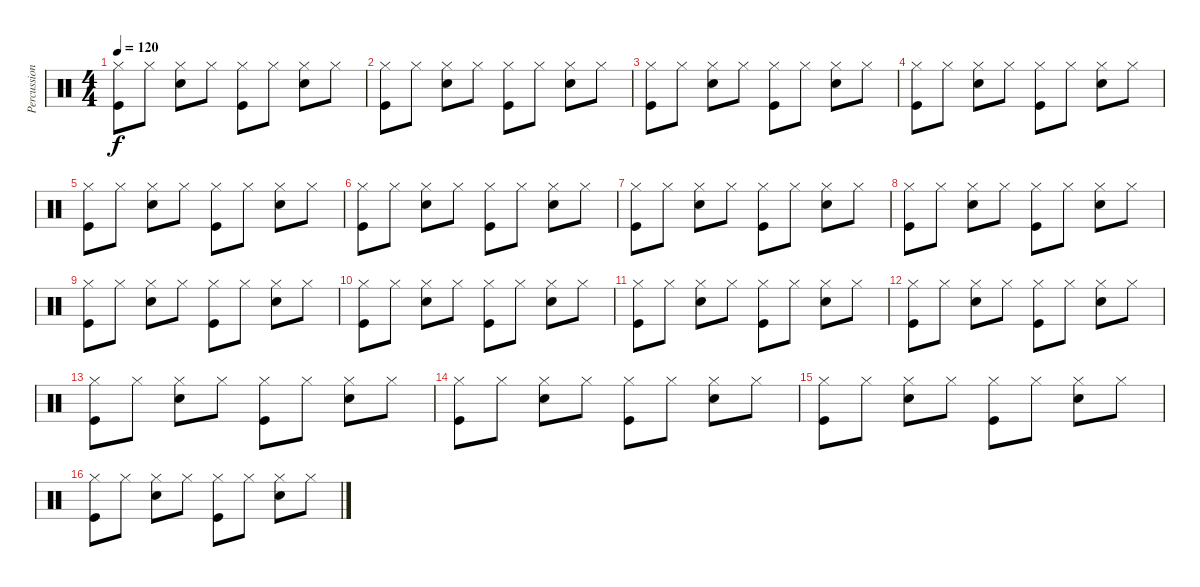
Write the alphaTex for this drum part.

\track ("Percussions" "Percussion") {instrument percussion}
\staff {score}
\articulation defaults
\ts (4 4)
\tempo 120
\clef neutral
\ks c
("Hi-Hat (closed)" "Kick (hit)").8{dy f} "Hi-Hat (closed)".8 ("Hi-Hat (closed)" "Electric Snare (hit)").8 "Hi-Hat (closed)".8 ("Hi-Hat (closed)" "Kick (hit)").8 "Hi-Hat (closed)".8 ("Hi-Hat (closed)" "Electric Snare (hit)").8 "Hi-Hat (closed)".8 |
("Hi-Hat (closed)" "Kick (hit)").8 "Hi-Hat (closed)".8 ("Hi-Hat (closed)" "Electric Snare (hit)").8 "Hi-Hat (closed)".8 ("Hi-Hat (closed)" "Kick (hit)").8 "Hi-Hat (closed)".8 ("Hi-Hat (closed)" "Electric Snare (hit)").8 "Hi-Hat (closed)".8 |
("Hi-Hat (closed)" "Kick (hit)").8 "Hi-Hat (closed)".8 ("Hi-Hat (closed)" "Electric Snare (hit)").8 "Hi-Hat (closed)".8 ("Hi-Hat (closed)" "Kick (hit)").8 "Hi-Hat (closed)".8 ("Hi-Hat (closed)" "Electric Snare (hit)").8 "Hi-Hat (closed)".8 |
("Hi-Hat (closed)" "Kick (hit)").8 "Hi-Hat (closed)".8 ("Hi-Hat (closed)" "Electric Snare (hit)").8 "Hi-Hat (closed)".8 ("Hi-Hat (closed)" "Kick (hit)").8 "Hi-Hat (closed)".8 ("Hi-Hat (closed)" "Electric Snare (hit)").8 "Hi-Hat (closed)".8 |
("Hi-Hat (closed)" "Kick (hit)").8 "Hi-Hat (closed)".8 ("Hi-Hat (closed)" "Electric Snare (hit)").8 "Hi-Hat (closed)".8 ("Hi-Hat (closed)" "Kick (hit)").8 "Hi-Hat (closed)".8 ("Hi-Hat (closed)" "Electric Snare (hit)").8 "Hi-Hat (closed)".8 |
("Hi-Hat (closed)" "Kick (hit)").8 "Hi-Hat (closed)".8 ("Hi-Hat (closed)" "Electric Snare (hit)").8 "Hi-Hat (closed)".8 ("Hi-Hat (closed)" "Kick (hit)").8 "Hi-Hat (closed)".8 ("Hi-Hat (closed)" "Electric Snare (hit)").8 "Hi-Hat (closed)".8 |
("Hi-Hat (closed)" "Kick (hit)").8 "Hi-Hat (closed)".8 ("Hi-Hat (closed)" "Electric Snare (hit)").8 "Hi-Hat (closed)".8 ("Hi-Hat (closed)" "Kick (hit)").8 "Hi-Hat (closed)".8 ("Hi-Hat (closed)" "Electric Snare (hit)").8 "Hi-Hat (closed)".8 |
("Hi-Hat (closed)" "Kick (hit)").8 "Hi-Hat (closed)".8 ("Hi-Hat (closed)" "Electric Snare (hit)").8 "Hi-Hat (closed)".8 ("Hi-Hat (closed)" "Kick (hit)").8 "Hi-Hat (closed)".8 ("Hi-Hat (closed)" "Electric Snare (hit)").8 "Hi-Hat (closed)".8 |
("Hi-Hat (closed)" "Kick (hit)").8 "Hi-Hat (closed)".8 ("Hi-Hat (closed)" "Electric Snare (hit)").8 "Hi-Hat (closed)".8 ("Hi-Hat (closed)" "Kick (hit)").8 "Hi-Hat (closed)".8 ("Hi-Hat (closed)" "Electric Snare (hit)").8 "Hi-Hat (closed)".8 |
("Hi-Hat (closed)" "Kick (hit)").8 "Hi-Hat (closed)".8 ("Hi-Hat (closed)" "Electric Snare (hit)").8 "Hi-Hat (closed)".8 ("Hi-Hat (closed)" "Kick (hit)").8 "Hi-Hat (closed)".8 ("Hi-Hat (closed)" "Electric Snare (hit)").8 "Hi-Hat (closed)".8 |
("Hi-Hat (closed)" "Kick (hit)").8 "Hi-Hat (closed)".8 ("Hi-Hat (closed)" "Electric Snare (hit)").8 "Hi-Hat (closed)".8 ("Hi-Hat (closed)" "Kick (hit)").8 "Hi-Hat (closed)".8 ("Hi-Hat (closed)" "Electric Snare (hit)").8 "Hi-Hat (closed)".8 |
("Hi-Hat (closed)" "Kick (hit)").8 "Hi-Hat (closed)".8 ("Hi-Hat (closed)" "Electric Snare (hit)").8 "Hi-Hat (closed)".8 ("Hi-Hat (closed)" "Kick (hit)").8 "Hi-Hat (closed)".8 ("Hi-Hat (closed)" "Electric Snare (hit)").8 "Hi-Hat (closed)".8 |
("Hi-Hat (closed)" "Kick (hit)").8 "Hi-Hat (closed)".8 ("Hi-Hat (closed)" "Electric Snare (hit)").8 "Hi-Hat (closed)".8 ("Hi-Hat (closed)" "Kick (hit)").8 "Hi-Hat (closed)".8 ("Hi-Hat (closed)" "Electric Snare (hit)").8 "Hi-Hat (closed)".8 |
("Hi-Hat (closed)" "Kick (hit)").8 "Hi-Hat (closed)".8 ("Hi-Hat (closed)" "Electric Snare (hit)").8 "Hi-Hat (closed)".8 ("Hi-Hat (closed)" "Kick (hit)").8 "Hi-Hat (closed)".8 ("Hi-Hat (closed)" "Electric Snare (hit)").8 "Hi-Hat (closed)".8 |
("Hi-Hat (closed)" "Kick (hit)").8 "Hi-Hat (closed)".8 ("Hi-Hat (closed)" "Electric Snare (hit)").8 "Hi-Hat (closed)".8 ("Hi-Hat (closed)" "Kick (hit)").8 "Hi-Hat (closed)".8 ("Hi-Hat (closed)" "Electric Snare (hit)").8 "Hi-Hat (closed)".8 |
("Hi-Hat (closed)" "Kick (hit)").8 "Hi-Hat (closed)".8 ("Hi-Hat (closed)" "Electric Snare (hit)").8 "Hi-Hat (closed)".8 ("Hi-Hat (closed)" "Kick (hit)").8 "Hi-Hat (closed)".8 ("Hi-Hat (closed)" "Electric Snare (hit)").8 "Hi-Hat (closed)".8
